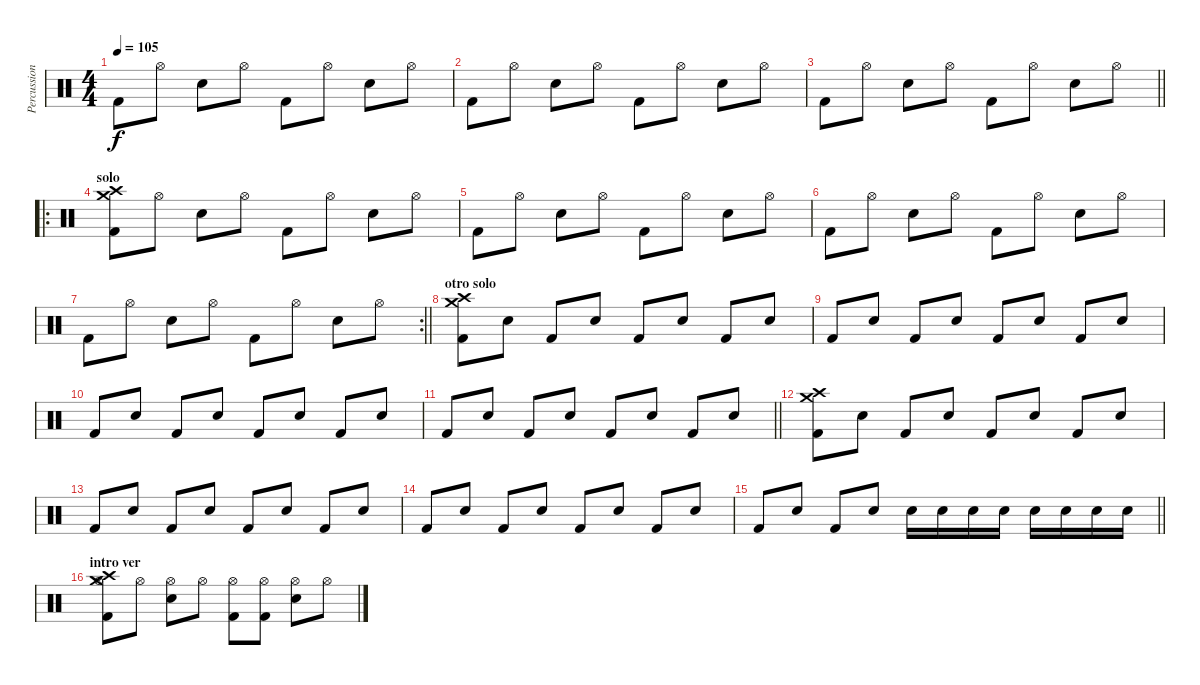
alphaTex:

\track ("Percussion" "Percussion") {instrument percussion}
\staff {score}
\articulation defaults
\ts (4 4)
\tempo 105
\clef neutral
\ks c "Kick (hit) 2".8{dy f} "Hi-Hat (open)".8 "Snare (hit) 2".8 "Hi-Hat (open)".8 "Kick (hit) 2".8 "Hi-Hat (open)".8 "Snare (hit) 2".8 "Hi-Hat (open)".8
|
"Kick (hit) 2".8 "Hi-Hat (open)".8 "Snare (hit) 2".8 "Hi-Hat (open)".8 "Kick (hit) 2".8 "Hi-Hat (open)".8 "Snare (hit) 2".8 "Hi-Hat (open)".8 |
\barLineRight lightlight "Kick (hit) 2".8 "Hi-Hat (open)".8 "Snare (hit) 2".8 "Hi-Hat (open)".8 "Kick (hit) 2".8 "Hi-Hat (open)".8 "Snare (hit) 2".8 "Hi-Hat (open)".8
|
\ro
\section ("" "solo")
("Crash high (hit)" "Crash medium (hit)" "Kick (hit) 2").8 "Hi-Hat (open)".8 "Snare (hit) 2".8 "Hi-Hat (open)".8 "Kick (hit) 2".8 "Hi-Hat (open)".8 "Snare (hit) 2".8 "Hi-Hat (open)".8 |
"Kick (hit) 2".8 "Hi-Hat (open)".8 "Snare (hit) 2".8 "Hi-Hat (open)".8 "Kick (hit) 2".8 "Hi-Hat (open)".8 "Snare (hit) 2".8 "Hi-Hat (open)".8 |
"Kick (hit) 2".8 "Hi-Hat (open)".8 "Snare (hit) 2".8 "Hi-Hat (open)".8 "Kick (hit) 2".8 "Hi-Hat (open)".8 "Snare (hit) 2".8 "Hi-Hat (open)".8 |
\rc 2
\barLineRight lightlight "Kick (hit) 2".8 "Hi-Hat (open)".8 "Snare (hit) 2".8 "Hi-Hat (open)".8 "Kick (hit) 2".8 "Hi-Hat (open)".8 "Snare (hit) 2".8 "Hi-Hat (open)".8
|
\section ("" "otro solo")
("Crash high (hit)" "Crash medium (hit)" "Kick (hit) 2").8 "Snare (hit) 2".8 "Kick (hit) 2".8 "Snare (hit) 2".8 "Kick (hit) 2".8 "Snare (hit) 2".8 "Kick (hit) 2".8 "Snare (hit) 2".8 |
"Kick (hit) 2".8 "Snare (hit) 2".8 "Kick (hit) 2".8 "Snare (hit) 2".8 "Kick (hit) 2".8 "Snare (hit) 2".8 "Kick (hit) 2".8 "Snare (hit) 2".8 |
"Kick (hit) 2".8 "Snare (hit) 2".8 "Kick (hit) 2".8 "Snare (hit) 2".8 "Kick (hit) 2".8 "Snare (hit) 2".8 "Kick (hit) 2".8 "Snare (hit) 2".8 |
\barLineRight lightlight "Kick (hit) 2".8 "Snare (hit) 2".8 "Kick (hit) 2".8 "Snare (hit) 2".8 "Kick (hit) 2".8 "Snare (hit) 2".8 "Kick (hit) 2".8 "Snare (hit) 2".8
|
("Crash high (hit)" "Crash medium (hit)" "Kick (hit) 2").8 "Snare (hit) 2".8 "Kick (hit) 2".8 "Snare (hit) 2".8 "Kick (hit) 2".8 "Snare (hit) 2".8 "Kick (hit) 2".8 "Snare (hit) 2".8 |
"Kick (hit) 2".8 "Snare (hit) 2".8 "Kick (hit) 2".8 "Snare (hit) 2".8 "Kick (hit) 2".8 "Snare (hit) 2".8 "Kick (hit) 2".8 "Snare (hit) 2".8 |
"Kick (hit) 2".8 "Snare (hit) 2".8 "Kick (hit) 2".8 "Snare (hit) 2".8 "Kick (hit) 2".8 "Snare (hit) 2".8 "Kick (hit) 2".8 "Snare (hit) 2".8 |
\barLineRight lightlight "Kick (hit) 2".8 "Snare (hit) 2".8 "Kick (hit) 2".8 "Snare (hit) 2".8 "Snare (hit) 2".16 "Snare (hit) 2".16 "Snare (hit) 2".16 "Snare (hit) 2".16 "Snare (hit) 2".16 "Snare (hit) 2".16 "Snare (hit) 2".16 "Snare (hit) 2".16
|
\section ("" "intro ver")
("Crash high (hit)" "Crash medium (hit)" "Hi-Hat (open)" "Kick (hit) 2").8 "Hi-Hat (open)".8 ("Hi-Hat (open)" "Snare (hit) 2").8 "Hi-Hat (open)".8 ("Hi-Hat (open)" "Kick (hit) 2").8 ("Hi-Hat (open)" "Kick (hit) 2").8 ("Hi-Hat (open)" "Snare (hit) 2").8 "Hi-Hat (open)".8
